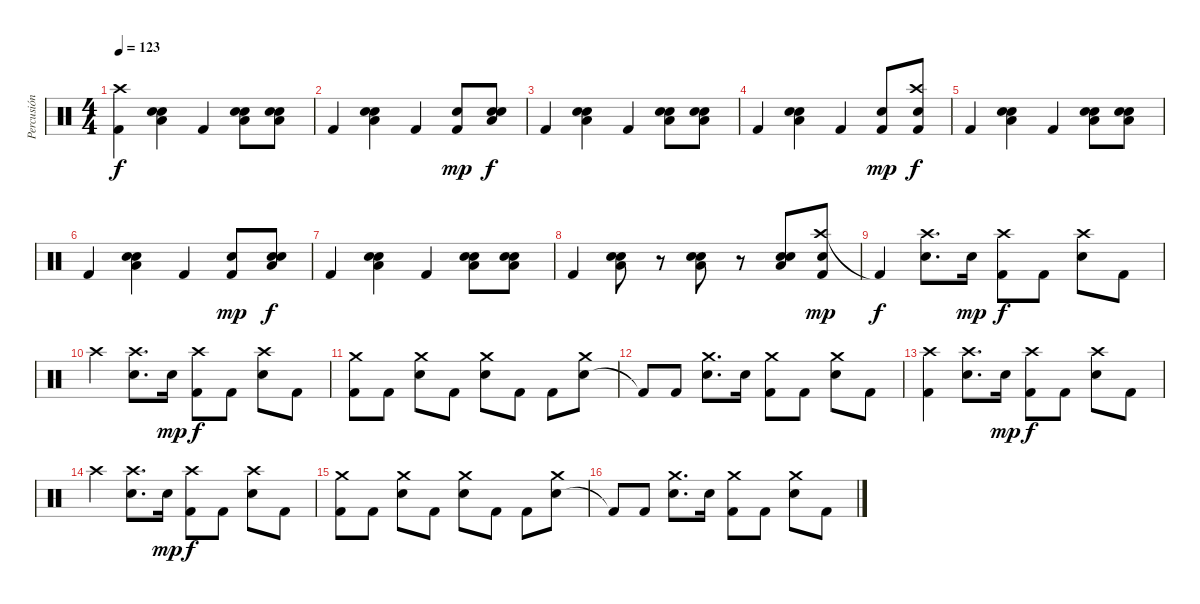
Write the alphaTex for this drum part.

\track ("Percusión" "Percusión") {instrument percussion}
\staff {score}
\articulation defaults
\ts (4 4)
\tempo 123
\clef neutral
\ks c
("Kick (hit) 2" "Crash high (hit)").4{dy f} ("Snare (hit) 2" "Low Tom (hit)" "Hand Clap (hit)").4 "Kick (hit) 2".4 ("Snare (hit) 2" "Low Tom (hit)" "Hand Clap (hit)").8 ("Snare (hit) 2" "Low Tom (hit)" "Hand Clap (hit)").8 |
"Kick (hit) 2".4 ("Snare (hit) 2" "Low Tom (hit)" "Hand Clap (hit)").4 "Kick (hit) 2".4 ("Kick (hit) 2" "Hand Clap (hit)").8{dy mp} ("Snare (hit) 2" "Low Tom (hit)" "Hand Clap (hit)").8{dy f} |
"Kick (hit) 2".4 ("Snare (hit) 2" "Low Tom (hit)" "Hand Clap (hit)").4 "Kick (hit) 2".4 ("Snare (hit) 2" "Low Tom (hit)" "Hand Clap (hit)").8 ("Snare (hit) 2" "Low Tom (hit)" "Hand Clap (hit)").8 |
"Kick (hit) 2".4 ("Snare (hit) 2" "Low Tom (hit)" "Hand Clap (hit)").4 "Kick (hit) 2".4 ("Kick (hit) 2" "Hand Clap (hit)").8{dy mp} ("Crash high (hit)" "Kick (hit) 2" "Hand Clap (hit)").8{dy f} |
"Kick (hit) 2".4 ("Snare (hit) 2" "Low Tom (hit)" "Hand Clap (hit)").4 "Kick (hit) 2".4 ("Snare (hit) 2" "Low Tom (hit)" "Hand Clap (hit)").8 ("Snare (hit) 2" "Low Tom (hit)" "Hand Clap (hit)").8 |
"Kick (hit) 2".4 ("Snare (hit) 2" "Low Tom (hit)" "Hand Clap (hit)").4 "Kick (hit) 2".4 ("Kick (hit) 2" "Hand Clap (hit)").8{dy mp} ("Snare (hit) 2" "Low Tom (hit)" "Hand Clap (hit)").8{dy f} |
"Kick (hit) 2".4 ("Snare (hit) 2" "Low Tom (hit)" "Hand Clap (hit)").4 "Kick (hit) 2".4 ("Snare (hit) 2" "Low Tom (hit)" "Hand Clap (hit)").8 ("Snare (hit) 2" "Low Tom (hit)" "Hand Clap (hit)").8 |
"Kick (hit) 2".4 ("Snare (hit) 2" "Low Tom (hit)" "Hand Clap (hit)").8 r.8 ("Snare (hit) 2" "Low Tom (hit)" "Hand Clap (hit)").8 r.8 ("Snare (hit) 2" "Low Tom (hit)" "Hand Clap (hit)").8 ("Crash high (hit)" "Kick (hit) 2" "Hand Clap (hit)").8{dy mp} |
"Kick (hit) 2"{t}.4{dy f} ("Snare (hit) 2" "Crash high (hit)").8{d} "Snare (hit) 2".16{dy mp} ("Kick (hit) 2" "Crash high (hit)").8{dy f} "Kick (hit) 2".8 ("Snare (hit) 2" "Crash high (hit)").8 "Kick (hit) 2".8 |
"Crash high (hit)".4 ("Snare (hit) 2" "Crash high (hit)").8{d} "Snare (hit) 2".16{dy mp} ("Kick (hit) 2" "Crash high (hit)").8{dy f} "Kick (hit) 2".8 ("Snare (hit) 2" "Crash high (hit)").8 "Kick (hit) 2".8 |
("Kick (hit) 2" "Crash medium (hit)").8 "Kick (hit) 2".8 ("Snare (hit) 2" "Crash medium (hit)").8 "Kick (hit) 2".8 ("Snare (hit) 2" "Crash medium (hit)").8 "Kick (hit) 2".8 "Kick (hit) 2".8 ("Snare (hit) 2" "Crash medium (hit)").8 |
"Kick (hit) 2"{t}.8 "Kick (hit) 2".8 ("Snare (hit) 2" "Crash medium (hit)").8{d} "Snare (hit) 2".16 ("Kick (hit) 2" "Crash medium (hit)").8 "Kick (hit) 2".8 ("Snare (hit) 2" "Crash medium (hit)").8 "Kick (hit) 2".8 |
("Kick (hit) 2" "Crash high (hit)").4 ("Snare (hit) 2" "Crash high (hit)").8{d} "Snare (hit) 2".16{dy mp} ("Kick (hit) 2" "Crash high (hit)").8{dy f} "Kick (hit) 2".8 ("Snare (hit) 2" "Crash high (hit)").8 "Kick (hit) 2".8 |
"Crash high (hit)".4 ("Snare (hit) 2" "Crash high (hit)").8{d} "Snare (hit) 2".16{dy mp} ("Kick (hit) 2" "Crash high (hit)").8{dy f} "Kick (hit) 2".8 ("Snare (hit) 2" "Crash high (hit)").8 "Kick (hit) 2".8 |
("Kick (hit) 2" "Crash medium (hit)").8 "Kick (hit) 2".8 ("Snare (hit) 2" "Crash medium (hit)").8 "Kick (hit) 2".8 ("Snare (hit) 2" "Crash medium (hit)").8 "Kick (hit) 2".8 "Kick (hit) 2".8 ("Snare (hit) 2" "Crash medium (hit)").8 |
"Kick (hit) 2"{t}.8 "Kick (hit) 2".8 ("Snare (hit) 2" "Crash medium (hit)").8{d} "Snare (hit) 2".16 ("Kick (hit) 2" "Crash medium (hit)").8 "Kick (hit) 2".8 ("Snare (hit) 2" "Crash medium (hit)").8 "Kick (hit) 2".8
